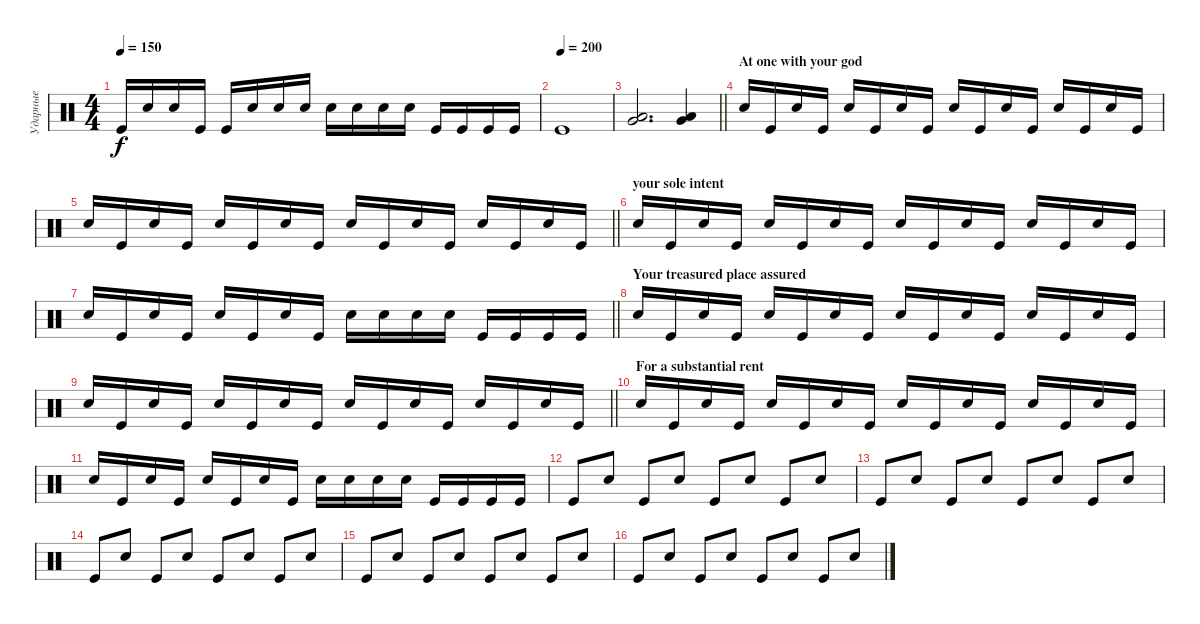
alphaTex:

\track ("Ударные" "Ударные") {instrument percussion}
\staff {score}
\articulation defaults
\ts (4 4)
\tempo 150
\clef neutral
\ks c "Kick (hit)".16{dy f} "Snare (hit) 2".16 "Snare (hit) 2".16 "Kick (hit)".16 "Kick (hit)".16 "Snare (hit) 2".16 "Snare (hit) 2".16 "Snare (hit) 2".16 "Snare (hit) 2".16 "Snare (hit) 2".16 "Snare (hit) 2".16 "Snare (hit) 2".16 "Kick (hit)".16 "Kick (hit)".16 "Kick (hit)".16 "Kick (hit)".16
|
\tempo (200)
"Kick (hit)".1 |
\barLineRight lightlight
("Very Low Tom (hit)" "Low Floor Tom (hit)").2{d} ("Very Low Tom (hit)" "Low Floor Tom (hit)").4 |
\section ("" "At one with your god")
"Snare (hit) 2".16 "Kick (hit)".16 "Snare (hit) 2".16 "Kick (hit)".16 "Snare (hit) 2".16 "Kick (hit)".16 "Snare (hit) 2".16 "Kick (hit)".16 "Snare (hit) 2".16 "Kick (hit)".16 "Snare (hit) 2".16 "Kick (hit)".16 "Snare (hit) 2".16 "Kick (hit)".16 "Snare (hit) 2".16 "Kick (hit)".16 |
\barLineRight lightlight "Snare (hit) 2".16 "Kick (hit)".16 "Snare (hit) 2".16 "Kick (hit)".16 "Snare (hit) 2".16 "Kick (hit)".16 "Snare (hit) 2".16 "Kick (hit)".16 "Snare (hit) 2".16 "Kick (hit)".16 "Snare (hit) 2".16 "Kick (hit)".16 "Snare (hit) 2".16 "Kick (hit)".16 "Snare (hit) 2".16 "Kick (hit)".16
|
\section ("" "your sole intent")
"Snare (hit) 2".16 "Kick (hit)".16 "Snare (hit) 2".16 "Kick (hit)".16 "Snare (hit) 2".16 "Kick (hit)".16 "Snare (hit) 2".16 "Kick (hit)".16 "Snare (hit) 2".16 "Kick (hit)".16 "Snare (hit) 2".16 "Kick (hit)".16 "Snare (hit) 2".16 "Kick (hit)".16 "Snare (hit) 2".16 "Kick (hit)".16 |
\barLineRight lightlight "Snare (hit) 2".16 "Kick (hit)".16 "Snare (hit) 2".16 "Kick (hit)".16 "Snare (hit) 2".16 "Kick (hit)".16 "Snare (hit) 2".16 "Kick (hit)".16 "Snare (hit) 2".16 "Snare (hit) 2".16 "Snare (hit) 2".16 "Snare (hit) 2".16 "Kick (hit)".16 "Kick (hit)".16 "Kick (hit)".16 "Kick (hit)".16
|
\section ("" "Your treasured place assured")
"Snare (hit) 2".16 "Kick (hit)".16 "Snare (hit) 2".16 "Kick (hit)".16 "Snare (hit) 2".16 "Kick (hit)".16 "Snare (hit) 2".16 "Kick (hit)".16 "Snare (hit) 2".16 "Kick (hit)".16 "Snare (hit) 2".16 "Kick (hit)".16 "Snare (hit) 2".16 "Kick (hit)".16 "Snare (hit) 2".16 "Kick (hit)".16 |
\barLineRight lightlight "Snare (hit) 2".16 "Kick (hit)".16 "Snare (hit) 2".16 "Kick (hit)".16 "Snare (hit) 2".16 "Kick (hit)".16 "Snare (hit) 2".16 "Kick (hit)".16 "Snare (hit) 2".16 "Kick (hit)".16 "Snare (hit) 2".16 "Kick (hit)".16 "Snare (hit) 2".16 "Kick (hit)".16 "Snare (hit) 2".16 "Kick (hit)".16
|
\section ("" "For a substantial rent")
"Snare (hit) 2".16 "Kick (hit)".16 "Snare (hit) 2".16 "Kick (hit)".16 "Snare (hit) 2".16 "Kick (hit)".16 "Snare (hit) 2".16 "Kick (hit)".16 "Snare (hit) 2".16 "Kick (hit)".16 "Snare (hit) 2".16 "Kick (hit)".16 "Snare (hit) 2".16 "Kick (hit)".16 "Snare (hit) 2".16 "Kick (hit)".16 |
"Snare (hit) 2".16 "Kick (hit)".16 "Snare (hit) 2".16 "Kick (hit)".16 "Snare (hit) 2".16 "Kick (hit)".16 "Snare (hit) 2".16 "Kick (hit)".16 "Snare (hit) 2".16 "Snare (hit) 2".16 "Snare (hit) 2".16 "Snare (hit) 2".16 "Kick (hit)".16 "Kick (hit)".16 "Kick (hit)".16 "Kick (hit)".16 |
"Kick (hit)".8 "Snare (hit) 2".8 "Kick (hit)".8 "Snare (hit) 2".8 "Kick (hit)".8 "Snare (hit) 2".8 "Kick (hit)".8 "Snare (hit) 2".8 |
"Kick (hit)".8 "Snare (hit) 2".8 "Kick (hit)".8 "Snare (hit) 2".8 "Kick (hit)".8 "Snare (hit) 2".8 "Kick (hit)".8 "Snare (hit) 2".8 |
"Kick (hit)".8 "Snare (hit) 2".8 "Kick (hit)".8 "Snare (hit) 2".8 "Kick (hit)".8 "Snare (hit) 2".8 "Kick (hit)".8 "Snare (hit) 2".8 |
"Kick (hit)".8 "Snare (hit) 2".8 "Kick (hit)".8 "Snare (hit) 2".8 "Kick (hit)".8 "Snare (hit) 2".8 "Kick (hit)".8 "Snare (hit) 2".8 |
"Kick (hit)".8 "Snare (hit) 2".8 "Kick (hit)".8 "Snare (hit) 2".8 "Kick (hit)".8 "Snare (hit) 2".8 "Kick (hit)".8 "Snare (hit) 2".8
